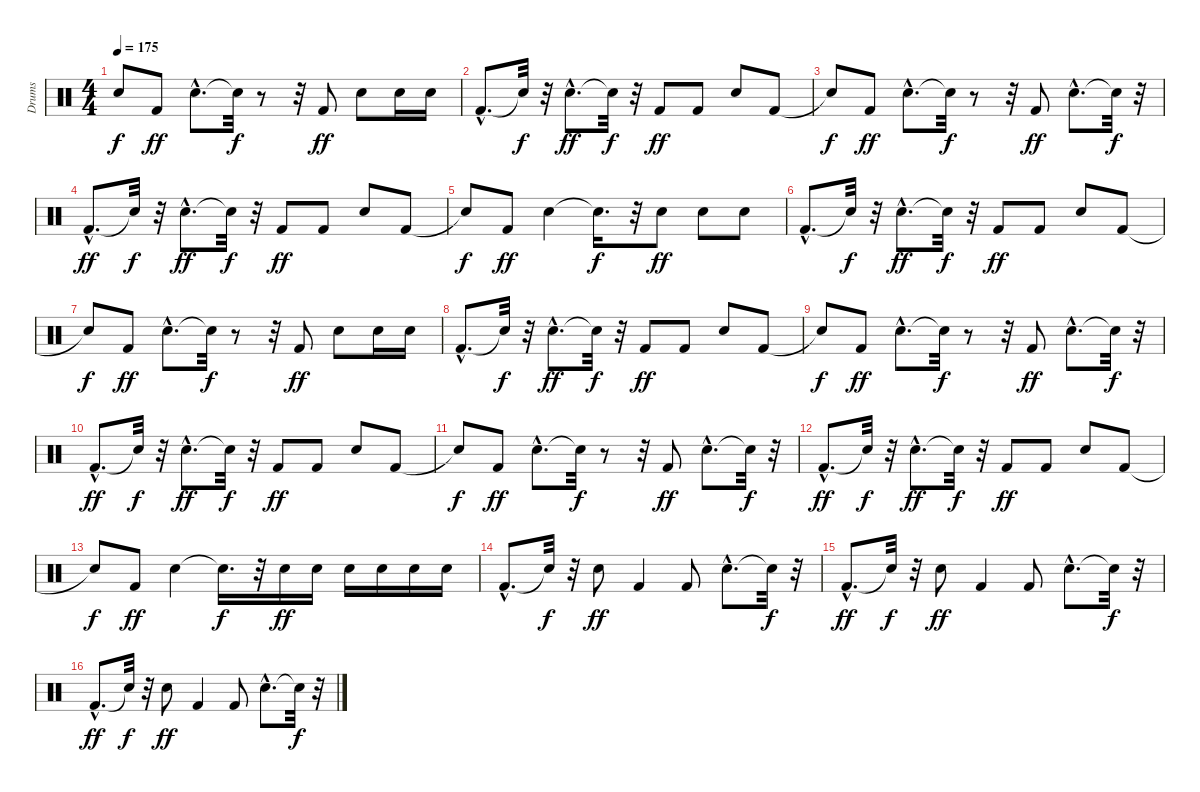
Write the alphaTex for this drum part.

\track ("Drums" "Drums") {instrument percussion}
\staff {score}
\articulation defaults
\ts (4 4)
\tempo 175
\clef neutral
\ks c "Snare (hit)"{t}.8{dy f} "Kick (hit) 2".8{dy ff} "Electric Snare (hit)"{hac}.8{d} "Snare (hit)"{t}.32{dy f}
r.8 r.32 "Kick (hit) 2".8{dy ff} "Electric Snare (hit)".8 "Electric Snare (hit)".16 "Electric Snare (hit)".16 |
"Kick (hit) 2"{hac}.8{d} "Snare (hit)"{t}.32{dy f} r.32 "Electric Snare (hit)"{hac}.8{d dy ff} "Snare (hit)"{t}.32{dy f} r.32 "Kick (hit) 2".8{dy ff} "Kick (hit) 2".8 "Electric Snare (hit)".8 "Kick (hit) 2".8 |
"Snare (hit)"{t}.8{dy f} "Kick (hit) 2".8{dy ff} "Electric Snare (hit)"{hac}.8{d} "Snare (hit)"{t}.32{dy f} r.8 r.32 "Kick (hit) 2".8{dy ff} "Electric Snare (hit)"{hac}.8{d} "Snare (hit)"{t}.32{dy f} r.32 |
"Kick (hit) 2"{hac}.8{d dy ff} "Snare (hit)"{t}.32{dy f} r.32 "Electric Snare (hit)"{hac}.8{d dy ff} "Snare (hit)"{t}.32{dy f} r.32 "Kick (hit) 2".8{dy ff} "Kick (hit) 2".8 "Electric Snare (hit)".8 "Kick (hit) 2".8 |
"Snare (hit)"{t}.8{dy f} "Kick (hit) 2".8{dy ff} "Electric Snare (hit)".4 "Snare (hit)"{t}.16{d dy f} r.32 "Electric Snare (hit)".8{dy ff} "Electric Snare (hit)".8 "Electric Snare (hit)".8 |
"Kick (hit) 2"{hac}.8{d} "Snare (hit)"{t}.32{dy f} r.32 "Electric Snare (hit)"{hac}.8{d dy ff} "Snare (hit)"{t}.32{dy f} r.32 "Kick (hit) 2".8{dy ff} "Kick (hit) 2".8 "Electric Snare (hit)".8 "Kick (hit) 2".8 |
"Snare (hit)"{t}.8{dy f} "Kick (hit) 2".8{dy ff} "Electric Snare (hit)"{hac}.8{d} "Snare (hit)"{t}.32{dy f} r.8 r.32 "Kick (hit) 2".8{dy ff} "Electric Snare (hit)".8 "Electric Snare (hit)".16 "Electric Snare (hit)".16 |
"Kick (hit) 2"{hac}.8{d} "Snare (hit)"{t}.32{dy f} r.32 "Electric Snare (hit)"{hac}.8{d dy ff} "Snare (hit)"{t}.32{dy f} r.32 "Kick (hit) 2".8{dy ff} "Kick (hit) 2".8 "Electric Snare (hit)".8 "Kick (hit) 2".8 |
"Snare (hit)"{t}.8{dy f} "Kick (hit) 2".8{dy ff} "Electric Snare (hit)"{hac}.8{d} "Snare (hit)"{t}.32{dy f} r.8 r.32 "Kick (hit) 2".8{dy ff} "Electric Snare (hit)"{hac}.8{d} "Snare (hit)"{t}.32{dy f} r.32 |
"Kick (hit) 2"{hac}.8{d dy ff} "Snare (hit)"{t}.32{dy f} r.32 "Electric Snare (hit)"{hac}.8{d dy ff} "Snare (hit)"{t}.32{dy f} r.32 "Kick (hit) 2".8{dy ff} "Kick (hit) 2".8 "Electric Snare (hit)".8 "Kick (hit) 2".8 |
"Snare (hit)"{t}.8{dy f} "Kick (hit) 2".8{dy ff} "Electric Snare (hit)"{hac}.8{d} "Snare (hit)"{t}.32{dy f} r.8 r.32 "Kick (hit) 2".8{dy ff} "Electric Snare (hit)"{hac}.8{d} "Snare (hit)"{t}.32{dy f} r.32 |
"Kick (hit) 2"{hac}.8{d dy ff} "Snare (hit)"{t}.32{dy f} r.32 "Electric Snare (hit)"{hac}.8{d dy ff} "Snare (hit)"{t}.32{dy f} r.32 "Kick (hit) 2".8{dy ff} "Kick (hit) 2".8 "Electric Snare (hit)".8 "Kick (hit) 2".8 |
"Snare (hit)"{t}.8{dy f} "Kick (hit) 2".8{dy ff} "Electric Snare (hit)".4 "Snare (hit)"{t}.16{d dy f} r.32 "Electric Snare (hit)".16{dy ff} "Electric Snare (hit)".16 "Electric Snare (hit)".16 "Electric Snare (hit)".16 "Electric Snare (hit)".16 "Electric Snare (hit)".16 |
"Kick (hit) 2"{hac}.8{d} "Snare (hit)"{t}.32{dy f} r.32 "Electric Snare (hit)".8{dy ff} "Kick (hit) 2".4 "Kick (hit) 2".8 "Electric Snare (hit)"{hac}.8{d} "Snare (hit)"{t}.32{dy f} r.32 |
"Kick (hit) 2"{hac}.8{d dy ff} "Snare (hit)"{t}.32{dy f} r.32 "Electric Snare (hit)".8{dy ff} "Kick (hit) 2".4 "Kick (hit) 2".8 "Electric Snare (hit)"{hac}.8{d} "Snare (hit)"{t}.32{dy f} r.32 |
"Kick (hit) 2"{hac}.8{d dy ff} "Snare (hit)"{t}.32{dy f} r.32 "Electric Snare (hit)".8{dy ff} "Kick (hit) 2".4 "Kick (hit) 2".8 "Electric Snare (hit)"{hac}.8{d} "Snare (hit)"{t}.32{dy f} r.32
